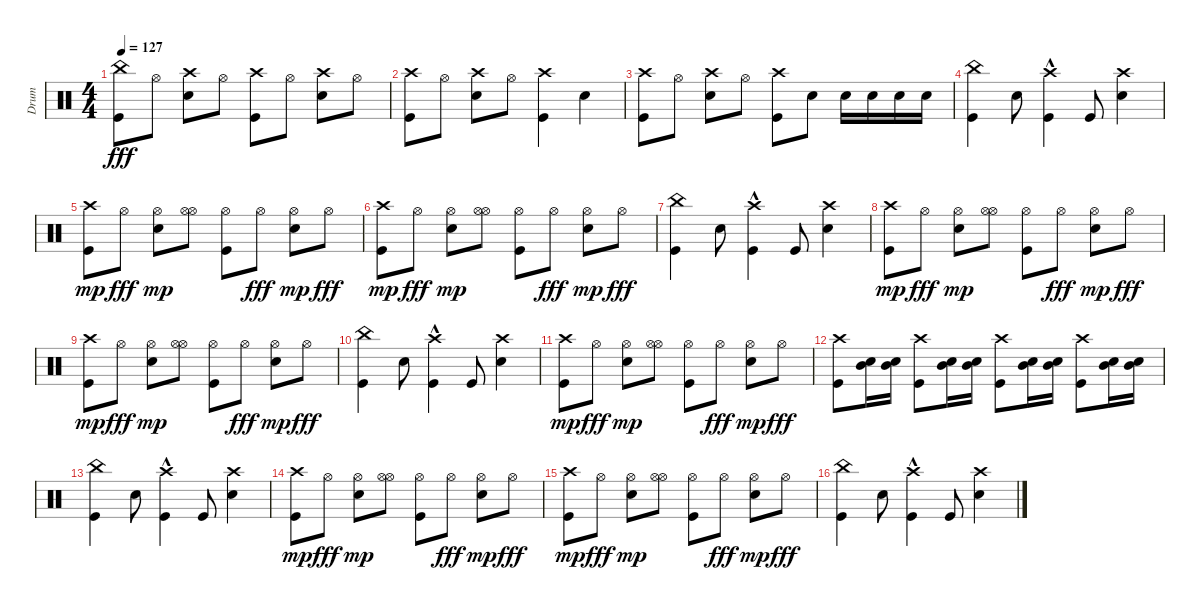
\track ("Drum" "Drum") {instrument percussion}
\staff {score}
\articulation defaults
\ts (4 4)
\tempo 127
\clef neutral
\ks c
("Kick (hit)" "China (hit)").8{dy fff} "Hi-Hat (open)".8 ("Crash high (hit)" "Electric Snare (hit)").8 "Hi-Hat (open)".8 ("Kick (hit)" "Crash high (hit)").8 "Hi-Hat (open)".8 ("Crash high (hit)" "Electric Snare (hit)").8 "Hi-Hat (open)".8 |
("Kick (hit)" "Crash high (hit)").8 "Hi-Hat (open)".8 ("Crash high (hit)" "Electric Snare (hit)").8 "Hi-Hat (open)".8 ("Kick (hit)" "Crash high (hit)").4 "Electric Snare (hit)".4 |
("Kick (hit)" "Crash high (hit)").8 "Hi-Hat (open)".8 ("Crash high (hit)" "Electric Snare (hit)").8 "Hi-Hat (open)".8 ("Kick (hit)" "Crash high (hit)").8 "Electric Snare (hit)".8 "Electric Snare (hit)".16 "Electric Snare (hit)".16 "Electric Snare (hit)".16 "Electric Snare (hit)".16 |
("Kick (hit)" "China (hit)").4 "Electric Snare (hit)".8 ("Crash high (hit)"{hac} "Kick (hit)").4 "Kick (hit)".8 ("Crash high (hit)" "Electric Snare (hit)").4 |
("Crash high (hit)" "Kick (hit)").8{dy mp} "Hi-Hat (open)".8{dy fff} ("Electric Snare (hit)" "Hi-Hat (open)").8{dy mp} ("Hi-Hat (open)" "Hi-Hat (open)").8 ("Kick (hit)" "Hi-Hat (open)").8 "Hi-Hat (open)".8{dy fff} ("Electric Snare (hit)" "Hi-Hat (open)").8{dy mp} "Hi-Hat (open)".8{dy fff} |
("Crash high (hit)" "Kick (hit)").8{dy mp} "Hi-Hat (open)".8{dy fff} ("Electric Snare (hit)" "Hi-Hat (open)").8{dy mp} ("Hi-Hat (open)" "Hi-Hat (open)").8 ("Kick (hit)" "Hi-Hat (open)").8 "Hi-Hat (open)".8{dy fff} ("Electric Snare (hit)" "Hi-Hat (open)").8{dy mp} "Hi-Hat (open)".8{dy fff} |
("Kick (hit)" "China (hit)").4 "Electric Snare (hit)".8 ("Crash high (hit)"{hac} "Kick (hit)").4 "Kick (hit)".8 ("Crash high (hit)" "Electric Snare (hit)").4 |
("Crash high (hit)" "Kick (hit)").8{dy mp} "Hi-Hat (open)".8{dy fff} ("Electric Snare (hit)" "Hi-Hat (open)").8{dy mp} ("Hi-Hat (open)" "Hi-Hat (open)").8 ("Kick (hit)" "Hi-Hat (open)").8 "Hi-Hat (open)".8{dy fff} ("Electric Snare (hit)" "Hi-Hat (open)").8{dy mp} "Hi-Hat (open)".8{dy fff} |
("Crash high (hit)" "Kick (hit)").8{dy mp} "Hi-Hat (open)".8{dy fff} ("Electric Snare (hit)" "Hi-Hat (open)").8{dy mp} ("Hi-Hat (open)" "Hi-Hat (open)").8 ("Kick (hit)" "Hi-Hat (open)").8 "Hi-Hat (open)".8{dy fff} ("Electric Snare (hit)" "Hi-Hat (open)").8{dy mp} "Hi-Hat (open)".8{dy fff} |
("Kick (hit)" "China (hit)").4 "Electric Snare (hit)".8 ("Crash high (hit)"{hac} "Kick (hit)").4 "Kick (hit)".8 ("Crash high (hit)" "Electric Snare (hit)").4 |
("Crash high (hit)" "Kick (hit)").8{dy mp} "Hi-Hat (open)".8{dy fff} ("Electric Snare (hit)" "Hi-Hat (open)").8{dy mp} ("Hi-Hat (open)" "Hi-Hat (open)").8 ("Kick (hit)" "Hi-Hat (open)").8 "Hi-Hat (open)".8{dy fff} ("Electric Snare (hit)" "Hi-Hat (open)").8{dy mp} "Hi-Hat (open)".8{dy fff} |
("Crash high (hit)" "Kick (hit)").8 ("Electric Snare (hit)" "Mid Tom (hit)").16 ("Electric Snare (hit)" "Mid Tom (hit)").16 ("Kick (hit)" "Crash high (hit)").8 ("Electric Snare (hit)" "Mid Tom (hit)").16 ("Electric Snare (hit)" "Mid Tom (hit)").16 ("Kick (hit)" "Crash high (hit)").8 ("Electric Snare (hit)" "Mid Tom (hit)").16 ("Electric Snare (hit)" "Mid Tom (hit)").16 ("Kick (hit)" "Crash high (hit)").8 ("Electric Snare (hit)" "Mid Tom (hit)").16 ("Electric Snare (hit)" "Mid Tom (hit)").16 |
("Kick (hit)" "China (hit)").4 "Electric Snare (hit)".8 ("Crash high (hit)"{hac} "Kick (hit)").4 "Kick (hit)".8 ("Crash high (hit)" "Electric Snare (hit)").4 |
("Crash high (hit)" "Kick (hit)").8{dy mp} "Hi-Hat (open)".8{dy fff} ("Electric Snare (hit)" "Hi-Hat (open)").8{dy mp} ("Hi-Hat (open)" "Hi-Hat (open)").8 ("Kick (hit)" "Hi-Hat (open)").8 "Hi-Hat (open)".8{dy fff} ("Electric Snare (hit)" "Hi-Hat (open)").8{dy mp} "Hi-Hat (open)".8{dy fff} |
("Crash high (hit)" "Kick (hit)").8{dy mp} "Hi-Hat (open)".8{dy fff} ("Electric Snare (hit)" "Hi-Hat (open)").8{dy mp} ("Hi-Hat (open)" "Hi-Hat (open)").8 ("Kick (hit)" "Hi-Hat (open)").8 "Hi-Hat (open)".8{dy fff} ("Electric Snare (hit)" "Hi-Hat (open)").8{dy mp} "Hi-Hat (open)".8{dy fff} |
("Kick (hit)" "China (hit)").4 "Electric Snare (hit)".8 ("Crash high (hit)"{hac} "Kick (hit)").4 "Kick (hit)".8 ("Crash high (hit)" "Electric Snare (hit)").4
